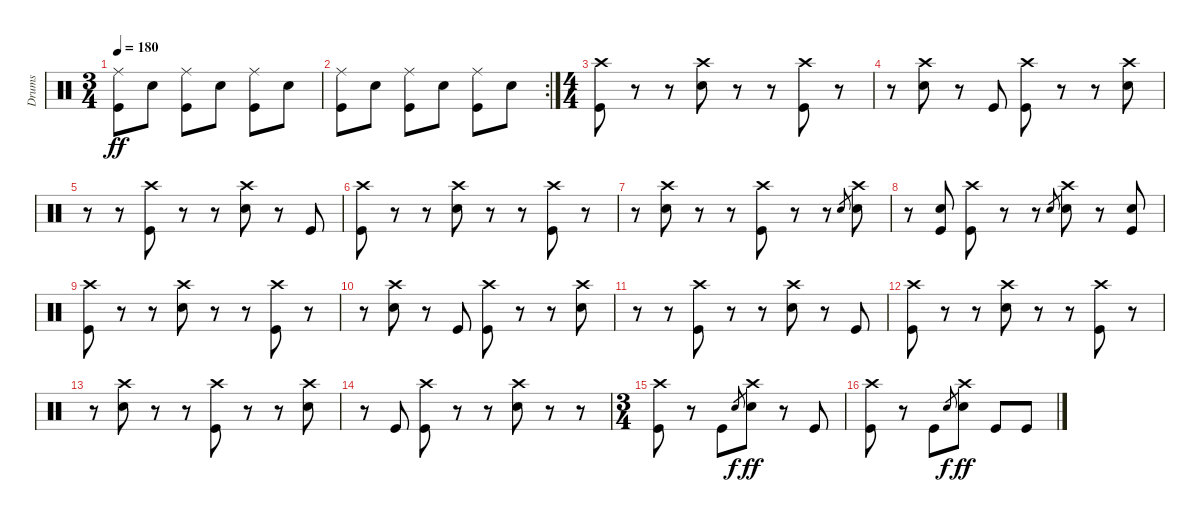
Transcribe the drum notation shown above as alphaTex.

\track ("Drums" "Drums") {instrument percussion}
\staff {score}
\articulation defaults
\ts (3 4)
\tempo 180
\clef neutral
\ks c
("Ride (middle)" "Kick (hit)").8{dy ff} "Snare (hit) 2".8 ("Ride (middle)" "Kick (hit)").8 "Snare (hit) 2".8 ("Ride (middle)" "Kick (hit)").8 "Snare (hit) 2".8 |
\rc 2
("Ride (middle)" "Kick (hit)").8 "Snare (hit) 2".8 ("Ride (middle)" "Kick (hit)").8 "Snare (hit) 2".8 ("Ride (middle)" "Kick (hit)").8 "Snare (hit) 2".8 |
\ts (4 4)
("Crash high (hit)" "Kick (hit)").8 r.8 r.8 ("Crash high (hit)" "Snare (hit) 2").8 r.8 r.8 ("Crash high (hit)" "Kick (hit)").8 r.8 |
r.8 ("Crash high (hit)" "Snare (hit) 2").8 r.8 "Kick (hit)".8 ("Crash high (hit)" "Kick (hit)").8 r.8 r.8 ("Crash high (hit)" "Snare (hit) 2").8 |
r.8 r.8 ("Crash high (hit)" "Kick (hit)").8 r.8 r.8 ("Crash high (hit)" "Snare (hit) 2").8 r.8 "Kick (hit)".8 |
("Crash high (hit)" "Kick (hit)").8 r.8 r.8 ("Crash high (hit)" "Snare (hit) 2").8 r.8 r.8 ("Crash high (hit)" "Kick (hit)").8 r.8 |
r.8 ("Crash high (hit)" "Snare (hit) 2").8 r.8 r.8 ("Crash high (hit)" "Kick (hit)").8 r.8 r.8 "Snare (hit) 2".8{gr} ("Crash high (hit)" "Snare (hit) 2").8 |
r.8 ("Snare (hit) 2" "Kick (hit)").8 ("Crash high (hit)" "Kick (hit)").8 r.8 r.8 "Snare (hit) 2".8{gr} ("Crash high (hit)" "Snare (hit) 2").8 r.8 ("Snare (hit) 2" "Kick (hit)").8 |
("Crash high (hit)" "Kick (hit)").8 r.8 r.8 ("Crash high (hit)" "Snare (hit) 2").8 r.8 r.8 ("Crash high (hit)" "Kick (hit)").8 r.8 |
r.8 ("Crash high (hit)" "Snare (hit) 2").8 r.8 "Kick (hit)".8 ("Crash high (hit)" "Kick (hit)").8 r.8 r.8 ("Crash high (hit)" "Snare (hit) 2").8 |
r.8 r.8 ("Crash high (hit)" "Kick (hit)").8 r.8 r.8 ("Crash high (hit)" "Snare (hit) 2").8 r.8 "Kick (hit)".8 |
("Crash high (hit)" "Kick (hit)").8 r.8 r.8 ("Crash high (hit)" "Snare (hit) 2").8 r.8 r.8 ("Crash high (hit)" "Kick (hit)").8 r.8 |
r.8 ("Crash high (hit)" "Snare (hit) 2").8 r.8 r.8 ("Crash high (hit)" "Kick (hit)").8 r.8 r.8 ("Crash high (hit)" "Snare (hit) 2").8 |
r.8 "Kick (hit)".8 ("Crash high (hit)" "Kick (hit)").8 r.8 r.8 ("Crash high (hit)" "Snare (hit) 2").8 r.8 r.8 |
\ts (3 4)
("Crash high (hit)" "Kick (hit)").8 r.8 "Kick (hit)".8 "Snare (hit) 2".8{gr dy f} ("Crash high (hit)" "Snare (hit) 2").8{dy ff} r.8 "Kick (hit)".8 |
("Crash high (hit)" "Kick (hit)").8 r.8 "Kick (hit)".8 "Snare (hit) 2".8{gr dy f} ("Crash high (hit)" "Snare (hit) 2").8{dy ff} "Kick (hit)".8 "Kick (hit)".8
